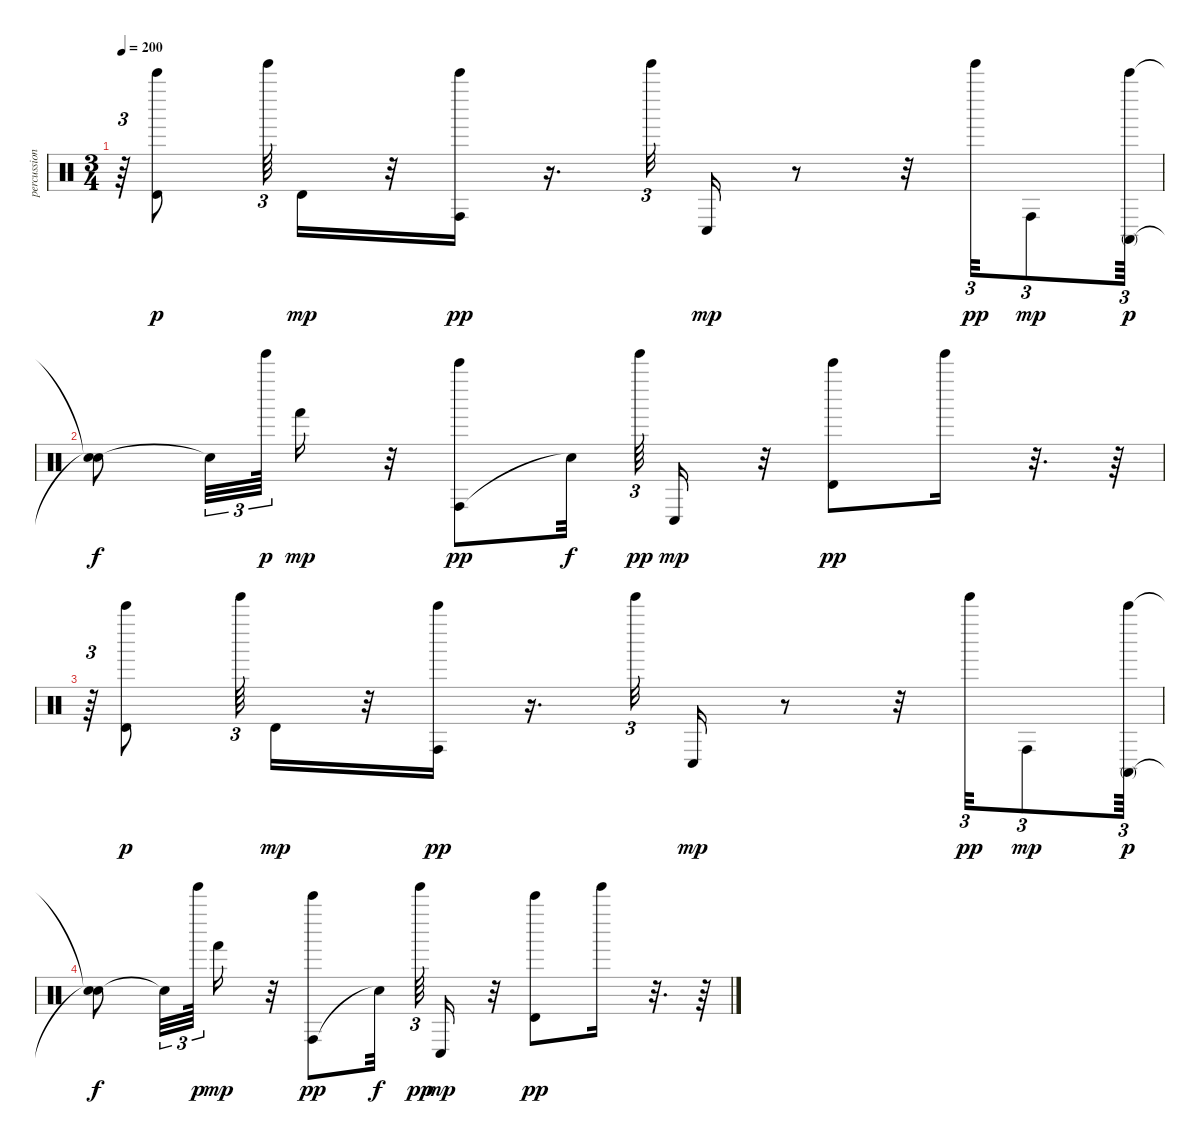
\track ("percussion" "percussion") {instrument percussion}
\staff {score}
\articulation defaults
\ts (3 4)
\tempo 200
\clef neutral
\ks c
r.64{tu (3 2) dy pp} ("Timbale high (hit)" "Bell Tree (hit)").8{dy p} "Tinkle Bell (hit)".64{tu (3 2)} "Timbale high (hit)".16{dy mp} r.32 ("Conga high (hit)" "Bell Tree (hit)").16{dy pp} r.16{d} "Tinkle Bell (hit)".32{tu (3 2)} "Conga low (hit)".16{dy mp} r.8 r.32 "Tinkle Bell (hit)".32{tu (3 2) dy pp} "Conga high (hit)".8{tu (3 2) dy mp} ("Conga high (mute)" "Bell Tree (hit)").64{tu (3 2) dy p} |
("Snare (hit)"{t} "Snare (hit)"{t}).8{dy f} "Snare (hit)"{t}.32{tu (3 2)} "Tinkle Bell (hit)".64{tu (3 2) dy p} "Hand (hit)".16{dy mp} r.32 ("Conga high (hit)" "Bell Tree (hit)").8{dy pp} "Snare (hit)"{t}.32{dy f} "Tinkle Bell (hit)".64{tu (3 2) dy pp} "Conga low (hit)".16{dy mp} r.32 ("Timbale high (hit)" "Bell Tree (hit)").8{dy pp} "Tinkle Bell (hit)".16 r.32{d} r.64 |
r.64{tu (3 2)} ("Timbale high (hit)" "Bell Tree (hit)").8{dy p} "Tinkle Bell (hit)".64{tu (3 2)} "Timbale high (hit)".16{dy mp} r.32 ("Conga high (hit)" "Bell Tree (hit)").16{dy pp} r.16{d} "Tinkle Bell (hit)".32{tu (3 2)} "Conga low (hit)".16{dy mp} r.8 r.32 "Tinkle Bell (hit)".32{tu (3 2) dy pp} "Conga high (hit)".8{tu (3 2) dy mp} ("Conga high (mute)" "Bell Tree (hit)").64{tu (3 2) dy p} |
("Snare (hit)"{t} "Snare (hit)"{t}).8{dy f} "Snare (hit)"{t}.32{tu (3 2)} "Tinkle Bell (hit)".64{tu (3 2) dy p} "Hand (hit)".16{dy mp} r.32 ("Conga high (hit)" "Bell Tree (hit)").8{dy pp} "Snare (hit)"{t}.32{dy f} "Tinkle Bell (hit)".64{tu (3 2) dy pp} "Conga low (hit)".16{dy mp} r.32 ("Timbale high (hit)" "Bell Tree (hit)").8{dy pp} "Tinkle Bell (hit)".16 r.32{d} r.64
